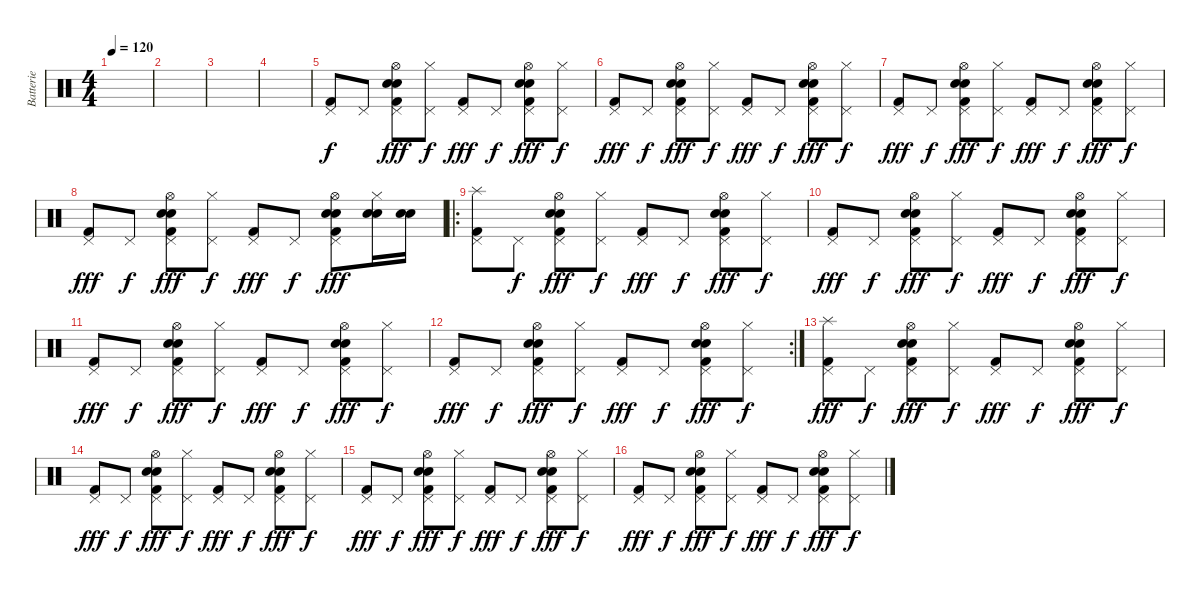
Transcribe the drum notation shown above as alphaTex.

\track ("Batterie" "Batterie") {instrument percussion}
\staff {score}
\articulation defaults
\ts (4 4)
\tempo 120
\clef neutral
\ks c
|
|
|
|
("Pedal Hi-Hat (hit)" "Kick (hit) 2").8 "Pedal Hi-Hat (hit)".8{dy f} ("Pedal Hi-Hat (hit)" "Kick (hit) 2" "Snare (hit) 2" "Electric Snare (hit)" "Hi-Hat (open)").8{dy fff} ("Pedal Hi-Hat (hit)" "Hi-Hat (closed)").8{dy f} ("Pedal Hi-Hat (hit)" "Kick (hit) 2").8{dy fff} "Pedal Hi-Hat (hit)".8{dy f} ("Pedal Hi-Hat (hit)" "Kick (hit) 2" "Snare (hit) 2" "Electric Snare (hit)" "Hi-Hat (open)").8{dy fff} ("Pedal Hi-Hat (hit)" "Hi-Hat (closed)").8{dy f} |
("Pedal Hi-Hat (hit)" "Kick (hit) 2").8{dy fff} "Pedal Hi-Hat (hit)".8{dy f} ("Pedal Hi-Hat (hit)" "Kick (hit) 2" "Snare (hit) 2" "Electric Snare (hit)" "Hi-Hat (open)").8{dy fff} ("Pedal Hi-Hat (hit)" "Hi-Hat (closed)").8{dy f} ("Pedal Hi-Hat (hit)" "Kick (hit) 2").8{dy fff} "Pedal Hi-Hat (hit)".8{dy f} ("Pedal Hi-Hat (hit)" "Kick (hit) 2" "Snare (hit) 2" "Electric Snare (hit)" "Hi-Hat (open)").8{dy fff} ("Pedal Hi-Hat (hit)" "Hi-Hat (closed)").8{dy f} |
("Pedal Hi-Hat (hit)" "Kick (hit) 2").8{dy fff} "Pedal Hi-Hat (hit)".8{dy f} ("Pedal Hi-Hat (hit)" "Kick (hit) 2" "Snare (hit) 2" "Electric Snare (hit)" "Hi-Hat (open)").8{dy fff} ("Pedal Hi-Hat (hit)" "Hi-Hat (closed)").8{dy f} ("Pedal Hi-Hat (hit)" "Kick (hit) 2").8{dy fff} "Pedal Hi-Hat (hit)".8{dy f} ("Pedal Hi-Hat (hit)" "Kick (hit) 2" "Snare (hit) 2" "Electric Snare (hit)" "Hi-Hat (open)").8{dy fff} ("Pedal Hi-Hat (hit)" "Hi-Hat (closed)").8{dy f} |
("Pedal Hi-Hat (hit)" "Kick (hit) 2").8{dy fff} "Pedal Hi-Hat (hit)".8{dy f} ("Pedal Hi-Hat (hit)" "Kick (hit) 2" "Snare (hit) 2" "Electric Snare (hit)" "Hi-Hat (open)").8{dy fff} ("Pedal Hi-Hat (hit)" "Hi-Hat (closed)").8{dy f} ("Pedal Hi-Hat (hit)" "Kick (hit) 2").8{dy fff} "Pedal Hi-Hat (hit)".8{dy f} ("Pedal Hi-Hat (hit)" "Kick (hit) 2" "Snare (hit) 2" "Electric Snare (hit)" "Hi-Hat (open)").8{dy fff} ("Electric Snare (hit)" "Hi-Hat (closed)" "Snare (hit) 2").16 ("Electric Snare (hit)" "Snare (hit) 2").16 |
\ro
("Pedal Hi-Hat (hit)" "Kick (hit) 2" "Splash (hit)").8 "Pedal Hi-Hat (hit)".8{dy f} ("Pedal Hi-Hat (hit)" "Kick (hit) 2" "Snare (hit) 2" "Electric Snare (hit)" "Hi-Hat (open)").8{dy fff} ("Pedal Hi-Hat (hit)" "Hi-Hat (closed)").8{dy f} ("Pedal Hi-Hat (hit)" "Kick (hit) 2").8{dy fff} "Pedal Hi-Hat (hit)".8{dy f} ("Pedal Hi-Hat (hit)" "Kick (hit) 2" "Snare (hit) 2" "Electric Snare (hit)" "Hi-Hat (open)").8{dy fff} ("Pedal Hi-Hat (hit)" "Hi-Hat (closed)").8{dy f} |
("Pedal Hi-Hat (hit)" "Kick (hit) 2").8{dy fff} "Pedal Hi-Hat (hit)".8{dy f} ("Pedal Hi-Hat (hit)" "Kick (hit) 2" "Snare (hit) 2" "Electric Snare (hit)" "Hi-Hat (open)").8{dy fff} ("Pedal Hi-Hat (hit)" "Hi-Hat (closed)").8{dy f} ("Pedal Hi-Hat (hit)" "Kick (hit) 2").8{dy fff} "Pedal Hi-Hat (hit)".8{dy f} ("Pedal Hi-Hat (hit)" "Kick (hit) 2" "Snare (hit) 2" "Electric Snare (hit)" "Hi-Hat (open)").8{dy fff} ("Pedal Hi-Hat (hit)" "Hi-Hat (closed)").8{dy f} |
("Pedal Hi-Hat (hit)" "Kick (hit) 2").8{dy fff} "Pedal Hi-Hat (hit)".8{dy f} ("Pedal Hi-Hat (hit)" "Kick (hit) 2" "Snare (hit) 2" "Electric Snare (hit)" "Hi-Hat (open)").8{dy fff} ("Pedal Hi-Hat (hit)" "Hi-Hat (closed)").8{dy f} ("Pedal Hi-Hat (hit)" "Kick (hit) 2").8{dy fff} "Pedal Hi-Hat (hit)".8{dy f} ("Pedal Hi-Hat (hit)" "Kick (hit) 2" "Snare (hit) 2" "Electric Snare (hit)" "Hi-Hat (open)").8{dy fff} ("Pedal Hi-Hat (hit)" "Hi-Hat (closed)").8{dy f} |
\rc 2
("Pedal Hi-Hat (hit)" "Kick (hit) 2").8{dy fff} "Pedal Hi-Hat (hit)".8{dy f} ("Pedal Hi-Hat (hit)" "Kick (hit) 2" "Snare (hit) 2" "Electric Snare (hit)" "Hi-Hat (open)").8{dy fff} ("Pedal Hi-Hat (hit)" "Hi-Hat (closed)").8{dy f} ("Pedal Hi-Hat (hit)" "Kick (hit) 2").8{dy fff} "Pedal Hi-Hat (hit)".8{dy f} ("Pedal Hi-Hat (hit)" "Kick (hit) 2" "Snare (hit) 2" "Electric Snare (hit)" "Hi-Hat (open)").8{dy fff} ("Pedal Hi-Hat (hit)" "Hi-Hat (closed)").8{dy f} |
("Pedal Hi-Hat (hit)" "Kick (hit) 2" "Splash (hit)").8{dy fff} "Pedal Hi-Hat (hit)".8{dy f} ("Pedal Hi-Hat (hit)" "Kick (hit) 2" "Snare (hit) 2" "Electric Snare (hit)" "Hi-Hat (open)").8{dy fff} ("Pedal Hi-Hat (hit)" "Hi-Hat (closed)").8{dy f} ("Pedal Hi-Hat (hit)" "Kick (hit) 2").8{dy fff} "Pedal Hi-Hat (hit)".8{dy f} ("Pedal Hi-Hat (hit)" "Kick (hit) 2" "Snare (hit) 2" "Electric Snare (hit)" "Hi-Hat (open)").8{dy fff} ("Pedal Hi-Hat (hit)" "Hi-Hat (closed)").8{dy f} |
("Pedal Hi-Hat (hit)" "Kick (hit) 2").8{dy fff} "Pedal Hi-Hat (hit)".8{dy f} ("Pedal Hi-Hat (hit)" "Kick (hit) 2" "Snare (hit) 2" "Electric Snare (hit)" "Hi-Hat (open)").8{dy fff} ("Pedal Hi-Hat (hit)" "Hi-Hat (closed)").8{dy f} ("Pedal Hi-Hat (hit)" "Kick (hit) 2").8{dy fff} "Pedal Hi-Hat (hit)".8{dy f} ("Pedal Hi-Hat (hit)" "Kick (hit) 2" "Snare (hit) 2" "Electric Snare (hit)" "Hi-Hat (open)").8{dy fff} ("Pedal Hi-Hat (hit)" "Hi-Hat (closed)").8{dy f} |
("Pedal Hi-Hat (hit)" "Kick (hit) 2").8{dy fff} "Pedal Hi-Hat (hit)".8{dy f} ("Pedal Hi-Hat (hit)" "Kick (hit) 2" "Snare (hit) 2" "Electric Snare (hit)" "Hi-Hat (open)").8{dy fff} ("Pedal Hi-Hat (hit)" "Hi-Hat (closed)").8{dy f} ("Pedal Hi-Hat (hit)" "Kick (hit) 2").8{dy fff} "Pedal Hi-Hat (hit)".8{dy f} ("Pedal Hi-Hat (hit)" "Kick (hit) 2" "Snare (hit) 2" "Electric Snare (hit)" "Hi-Hat (open)").8{dy fff} ("Pedal Hi-Hat (hit)" "Hi-Hat (closed)").8{dy f} |
("Pedal Hi-Hat (hit)" "Kick (hit) 2").8{dy fff} "Pedal Hi-Hat (hit)".8{dy f} ("Pedal Hi-Hat (hit)" "Kick (hit) 2" "Snare (hit) 2" "Electric Snare (hit)" "Hi-Hat (open)").8{dy fff} ("Pedal Hi-Hat (hit)" "Hi-Hat (closed)").8{dy f} ("Pedal Hi-Hat (hit)" "Kick (hit) 2").8{dy fff} "Pedal Hi-Hat (hit)".8{dy f} ("Pedal Hi-Hat (hit)" "Kick (hit) 2" "Snare (hit) 2" "Electric Snare (hit)" "Hi-Hat (open)").8{dy fff} ("Pedal Hi-Hat (hit)" "Hi-Hat (closed)").8{dy f}
